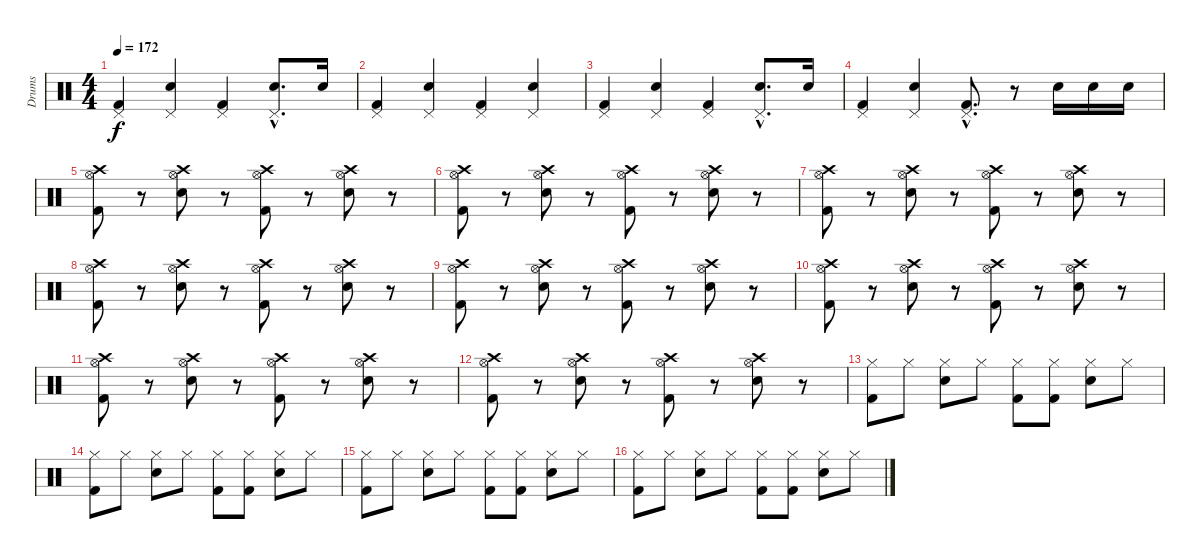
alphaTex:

\track ("Drums" "Drums") {instrument percussion}
\staff {score}
\articulation defaults
\ts (4 4)
\tempo 172
\clef neutral
\ks c
("Pedal Hi-Hat (hit)" "Kick (hit) 2").4{dy f} ("Pedal Hi-Hat (hit)" "Snare (hit) 2").4 ("Pedal Hi-Hat (hit)" "Kick (hit) 2").4 ("Pedal Hi-Hat (hit)"{hac} "Snare (hit) 2"{hac}).8{d} "Electric Snare (hit)".16 |
("Pedal Hi-Hat (hit)" "Kick (hit) 2").4 ("Pedal Hi-Hat (hit)" "Snare (hit) 2").4 ("Pedal Hi-Hat (hit)" "Kick (hit) 2").4 ("Pedal Hi-Hat (hit)" "Snare (hit) 2").4 |
("Pedal Hi-Hat (hit)" "Kick (hit) 2").4 ("Pedal Hi-Hat (hit)" "Snare (hit) 2").4 ("Pedal Hi-Hat (hit)" "Kick (hit) 2").4 ("Pedal Hi-Hat (hit)"{hac} "Snare (hit) 2"{hac}).8{d} "Electric Snare (hit)".16 |
("Pedal Hi-Hat (hit)" "Kick (hit) 2").4 ("Pedal Hi-Hat (hit)" "Snare (hit) 2").4 ("Pedal Hi-Hat (hit)"{hac} "Kick (hit) 2"{hac}).8{d} r.8 "Snare (hit) 2".16 "Snare (hit) 2".16 "Snare (hit) 2".16 |
("Crash high (hit)" "Hi-Hat (open)" "Kick (hit) 2").8 r.8 ("Crash high (hit)" "Hi-Hat (open)" "Snare (hit) 2").8 r.8 ("Crash high (hit)" "Hi-Hat (open)" "Kick (hit) 2").8 r.8 ("Crash high (hit)" "Hi-Hat (open)" "Snare (hit) 2").8 r.8 |
("Crash high (hit)" "Hi-Hat (open)" "Kick (hit) 2").8 r.8 ("Crash high (hit)" "Hi-Hat (open)" "Snare (hit) 2").8 r.8 ("Crash high (hit)" "Hi-Hat (open)" "Kick (hit) 2").8 r.8 ("Crash high (hit)" "Hi-Hat (open)" "Snare (hit) 2").8 r.8 |
("Crash high (hit)" "Hi-Hat (open)" "Kick (hit) 2").8 r.8 ("Crash high (hit)" "Hi-Hat (open)" "Snare (hit) 2").8 r.8 ("Crash high (hit)" "Hi-Hat (open)" "Kick (hit) 2").8 r.8 ("Crash high (hit)" "Hi-Hat (open)" "Snare (hit) 2").8 r.8 |
("Crash high (hit)" "Hi-Hat (open)" "Kick (hit) 2").8 r.8 ("Crash high (hit)" "Hi-Hat (open)" "Snare (hit) 2").8 r.8 ("Crash high (hit)" "Hi-Hat (open)" "Kick (hit) 2").8 r.8 ("Crash high (hit)" "Hi-Hat (open)" "Snare (hit) 2").8 r.8 |
("Crash high (hit)" "Hi-Hat (open)" "Kick (hit) 2").8 r.8 ("Crash high (hit)" "Hi-Hat (open)" "Snare (hit) 2").8 r.8 ("Crash high (hit)" "Hi-Hat (open)" "Kick (hit) 2").8 r.8 ("Crash high (hit)" "Hi-Hat (open)" "Snare (hit) 2").8 r.8 |
("Crash high (hit)" "Hi-Hat (open)" "Kick (hit) 2").8 r.8 ("Crash high (hit)" "Hi-Hat (open)" "Snare (hit) 2").8 r.8 ("Crash high (hit)" "Hi-Hat (open)" "Kick (hit) 2").8 r.8 ("Crash high (hit)" "Hi-Hat (open)" "Snare (hit) 2").8 r.8 |
("Crash high (hit)" "Hi-Hat (open)" "Kick (hit) 2").8 r.8 ("Crash high (hit)" "Hi-Hat (open)" "Snare (hit) 2").8 r.8 ("Crash high (hit)" "Hi-Hat (open)" "Kick (hit) 2").8 r.8 ("Crash high (hit)" "Hi-Hat (open)" "Snare (hit) 2").8 r.8 |
("Crash high (hit)" "Hi-Hat (open)" "Kick (hit) 2").8 r.8 ("Crash high (hit)" "Hi-Hat (open)" "Snare (hit) 2").8 r.8 ("Crash high (hit)" "Hi-Hat (open)" "Kick (hit) 2").8 r.8 ("Crash high (hit)" "Hi-Hat (open)" "Snare (hit) 2").8 r.8 |
("Hi-Hat (closed)" "Kick (hit) 2").8 "Hi-Hat (closed)".8 ("Hi-Hat (closed)" "Snare (hit) 2").8 "Hi-Hat (closed)".8 ("Hi-Hat (closed)" "Kick (hit) 2").8 ("Hi-Hat (closed)" "Kick (hit) 2").8 ("Hi-Hat (closed)" "Snare (hit) 2").8 "Hi-Hat (closed)".8 |
("Hi-Hat (closed)" "Kick (hit) 2").8 "Hi-Hat (closed)".8 ("Hi-Hat (closed)" "Snare (hit) 2").8 "Hi-Hat (closed)".8 ("Hi-Hat (closed)" "Kick (hit) 2").8 ("Hi-Hat (closed)" "Kick (hit) 2").8 ("Hi-Hat (closed)" "Snare (hit) 2").8 "Hi-Hat (closed)".8 |
("Hi-Hat (closed)" "Kick (hit) 2").8 "Hi-Hat (closed)".8 ("Hi-Hat (closed)" "Snare (hit) 2").8 "Hi-Hat (closed)".8 ("Hi-Hat (closed)" "Kick (hit) 2").8 ("Hi-Hat (closed)" "Kick (hit) 2").8 ("Hi-Hat (closed)" "Snare (hit) 2").8 "Hi-Hat (closed)".8 |
("Hi-Hat (closed)" "Kick (hit) 2").8 "Hi-Hat (closed)".8 ("Hi-Hat (closed)" "Snare (hit) 2").8 "Hi-Hat (closed)".8 ("Hi-Hat (closed)" "Kick (hit) 2").8 ("Hi-Hat (closed)" "Kick (hit) 2").8 ("Hi-Hat (closed)" "Snare (hit) 2").8 "Hi-Hat (closed)".8
